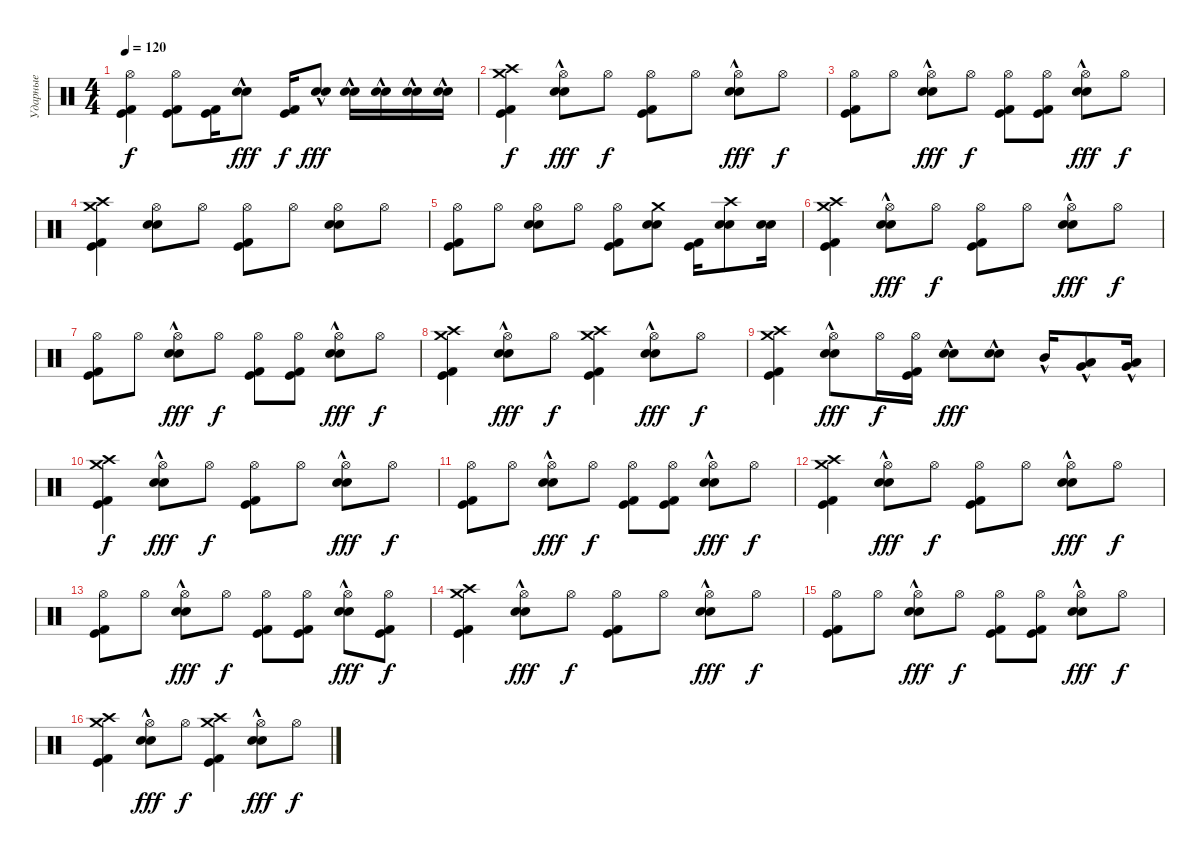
\track ("Ударные" "Ударные") {instrument percussion}
\staff {score}
\articulation defaults
\ts (4 4)
\tempo 120
\clef neutral
\ks c
("Hi-Hat (open)" "Kick (hit)" "Kick (hit) 2").4{dy f} ("Hi-Hat (open)" "Kick (hit)" "Kick (hit) 2").8 ("Kick (hit)" "Kick (hit) 2").16 ("Snare (hit) 2"{hac} "Electric Snare (hit)"{hac}).8{dy fff} ("Kick (hit)" "Kick (hit) 2").16{dy f} ("Snare (hit) 2"{hac} "Electric Snare (hit)"{hac}).8{dy fff} ("Snare (hit) 2"{hac} "Electric Snare (hit)"{hac}).16 ("Snare (hit) 2"{hac} "Electric Snare (hit)"{hac}).16 ("Snare (hit) 2"{hac} "Electric Snare (hit)"{hac}).16 ("Snare (hit) 2"{hac} "Electric Snare (hit)"{hac}).16 |
("Crash high (hit)" "Kick (hit)" "Kick (hit) 2" "Crash medium (hit)").4{dy f} ("Hi-Hat (open)" "Snare (hit) 2"{hac} "Electric Snare (hit)"{hac}).8{dy fff} "Hi-Hat (open)".8{dy f} ("Hi-Hat (open)" "Kick (hit)" "Kick (hit) 2").8 "Hi-Hat (open)".8 ("Hi-Hat (open)" "Snare (hit) 2"{hac} "Electric Snare (hit)"{hac}).8{dy fff} "Hi-Hat (open)".8{dy f} |
("Hi-Hat (open)" "Kick (hit)" "Kick (hit) 2").8 "Hi-Hat (open)".8 ("Hi-Hat (open)" "Snare (hit) 2"{hac} "Electric Snare (hit)"{hac}).8{dy fff} "Hi-Hat (open)".8{dy f} ("Hi-Hat (open)" "Kick (hit)" "Kick (hit) 2").8 ("Hi-Hat (open)" "Kick (hit)" "Kick (hit) 2").8 ("Hi-Hat (open)" "Snare (hit) 2"{hac} "Electric Snare (hit)"{hac}).8{dy fff} "Hi-Hat (open)".8{dy f} |
("Crash high (hit)" "Kick (hit)" "Kick (hit) 2" "Crash medium (hit)").4 ("Hi-Hat (open)" "Snare (hit) 2" "Electric Snare (hit)").8 "Hi-Hat (open)".8 ("Hi-Hat (open)" "Kick (hit)" "Kick (hit) 2").8 "Hi-Hat (open)".8 ("Hi-Hat (open)" "Snare (hit) 2" "Electric Snare (hit)").8 "Hi-Hat (open)".8 |
("Hi-Hat (open)" "Kick (hit)" "Kick (hit) 2").8 "Hi-Hat (open)".8 ("Hi-Hat (open)" "Snare (hit) 2" "Electric Snare (hit)").8 "Hi-Hat (open)".8 ("Hi-Hat (open)" "Kick (hit)" "Kick (hit) 2").8 ("Crash medium (hit)" "Snare (hit) 2" "Electric Snare (hit)").8 ("Kick (hit)" "Kick (hit) 2").16 ("Crash high (hit)" "Snare (hit) 2" "Electric Snare (hit)").8 ("Snare (hit) 2" "Electric Snare (hit)").16 |
("Crash high (hit)" "Kick (hit)" "Kick (hit) 2" "Crash medium (hit)").4 ("Hi-Hat (open)" "Snare (hit) 2"{hac} "Electric Snare (hit)"{hac}).8{dy fff} "Hi-Hat (open)".8{dy f} ("Hi-Hat (open)" "Kick (hit)" "Kick (hit) 2").8 "Hi-Hat (open)".8 ("Hi-Hat (open)" "Snare (hit) 2"{hac} "Electric Snare (hit)"{hac}).8{dy fff} "Hi-Hat (open)".8{dy f} |
("Hi-Hat (open)" "Kick (hit)" "Kick (hit) 2").8 "Hi-Hat (open)".8 ("Hi-Hat (open)" "Snare (hit) 2"{hac} "Electric Snare (hit)"{hac}).8{dy fff} "Hi-Hat (open)".8{dy f} ("Hi-Hat (open)" "Kick (hit)" "Kick (hit) 2").8 ("Hi-Hat (open)" "Kick (hit)" "Kick (hit) 2").8 ("Hi-Hat (open)" "Snare (hit) 2"{hac} "Electric Snare (hit)"{hac}).8{dy fff} "Hi-Hat (open)".8{dy f} |
("Crash high (hit)" "Kick (hit)" "Kick (hit) 2" "Crash medium (hit)").4 ("Hi-Hat (open)" "Snare (hit) 2"{hac} "Electric Snare (hit)"{hac}).8{dy fff} "Hi-Hat (open)".8{dy f} ("Crash high (hit)" "Kick (hit)" "Kick (hit) 2" "Crash medium (hit)").4 ("Hi-Hat (open)" "Snare (hit) 2"{hac} "Electric Snare (hit)"{hac}).8{dy fff} "Hi-Hat (open)".8{dy f} |
("Crash high (hit)" "Kick (hit)" "Kick (hit) 2" "Crash medium (hit)").4 ("Hi-Hat (open)" "Snare (hit) 2"{hac} "Electric Snare (hit)"{hac}).8{dy fff} "Hi-Hat (open)".16{dy f} ("Hi-Hat (open)" "Kick (hit)" "Kick (hit) 2").16 ("Snare (hit) 2"{hac} "Electric Snare (hit)"{hac}).8{dy fff} ("Snare (hit) 2"{hac} "Electric Snare (hit)"{hac}).8 "Mid Tom (hit)"{hac}.16 ("Low Tom (hit)"{hac} "Very Low Tom (hit)"{hac}).8 ("Low Floor Tom (hit)"{hac} "Very Low Tom (hit)"{hac}).16 |
("Crash high (hit)" "Kick (hit)" "Kick (hit) 2" "Crash medium (hit)").4{dy f} ("Hi-Hat (open)" "Snare (hit) 2"{hac} "Electric Snare (hit)"{hac}).8{dy fff} "Hi-Hat (open)".8{dy f} ("Hi-Hat (open)" "Kick (hit)" "Kick (hit) 2").8 "Hi-Hat (open)".8 ("Hi-Hat (open)" "Snare (hit) 2"{hac} "Electric Snare (hit)"{hac}).8{dy fff} "Hi-Hat (open)".8{dy f} |
("Hi-Hat (open)" "Kick (hit)" "Kick (hit) 2").8 "Hi-Hat (open)".8 ("Hi-Hat (open)" "Snare (hit) 2"{hac} "Electric Snare (hit)"{hac}).8{dy fff} "Hi-Hat (open)".8{dy f} ("Hi-Hat (open)" "Kick (hit)" "Kick (hit) 2").8 ("Hi-Hat (open)" "Kick (hit)" "Kick (hit) 2").8 ("Hi-Hat (open)" "Snare (hit) 2"{hac} "Electric Snare (hit)"{hac}).8{dy fff} "Hi-Hat (open)".8{dy f} |
("Crash high (hit)" "Kick (hit)" "Kick (hit) 2" "Crash medium (hit)").4 ("Hi-Hat (open)" "Snare (hit) 2"{hac} "Electric Snare (hit)"{hac}).8{dy fff} "Hi-Hat (open)".8{dy f} ("Hi-Hat (open)" "Kick (hit)" "Kick (hit) 2").8 "Hi-Hat (open)".8 ("Hi-Hat (open)" "Snare (hit) 2"{hac} "Electric Snare (hit)"{hac}).8{dy fff} "Hi-Hat (open)".8{dy f} |
("Hi-Hat (open)" "Kick (hit)" "Kick (hit) 2").8 "Hi-Hat (open)".8 ("Hi-Hat (open)" "Snare (hit) 2"{hac} "Electric Snare (hit)"{hac}).8{dy fff} "Hi-Hat (open)".8{dy f} ("Hi-Hat (open)" "Kick (hit)" "Kick (hit) 2").8 ("Hi-Hat (open)" "Kick (hit)" "Kick (hit) 2").8 ("Hi-Hat (open)" "Snare (hit) 2"{hac} "Electric Snare (hit)"{hac}).8{dy fff} ("Hi-Hat (open)" "Kick (hit)" "Kick (hit) 2").8{dy f} |
("Crash high (hit)" "Kick (hit)" "Kick (hit) 2" "Crash medium (hit)").4 ("Hi-Hat (open)" "Snare (hit) 2"{hac} "Electric Snare (hit)"{hac}).8{dy fff} "Hi-Hat (open)".8{dy f} ("Hi-Hat (open)" "Kick (hit)" "Kick (hit) 2").8 "Hi-Hat (open)".8 ("Hi-Hat (open)" "Snare (hit) 2"{hac} "Electric Snare (hit)"{hac}).8{dy fff} "Hi-Hat (open)".8{dy f} |
("Hi-Hat (open)" "Kick (hit)" "Kick (hit) 2").8 "Hi-Hat (open)".8 ("Hi-Hat (open)" "Snare (hit) 2"{hac} "Electric Snare (hit)"{hac}).8{dy fff} "Hi-Hat (open)".8{dy f} ("Hi-Hat (open)" "Kick (hit)" "Kick (hit) 2").8 ("Hi-Hat (open)" "Kick (hit)" "Kick (hit) 2").8 ("Hi-Hat (open)" "Snare (hit) 2"{hac} "Electric Snare (hit)"{hac}).8{dy fff} "Hi-Hat (open)".8{dy f} |
("Crash high (hit)" "Kick (hit)" "Kick (hit) 2" "Crash medium (hit)").4 ("Hi-Hat (open)" "Snare (hit) 2"{hac} "Electric Snare (hit)"{hac}).8{dy fff} "Hi-Hat (open)".8{dy f} ("Crash high (hit)" "Kick (hit)" "Kick (hit) 2" "Crash medium (hit)").4 ("Hi-Hat (open)" "Snare (hit) 2"{hac} "Electric Snare (hit)"{hac}).8{dy fff} "Hi-Hat (open)".8{dy f}
